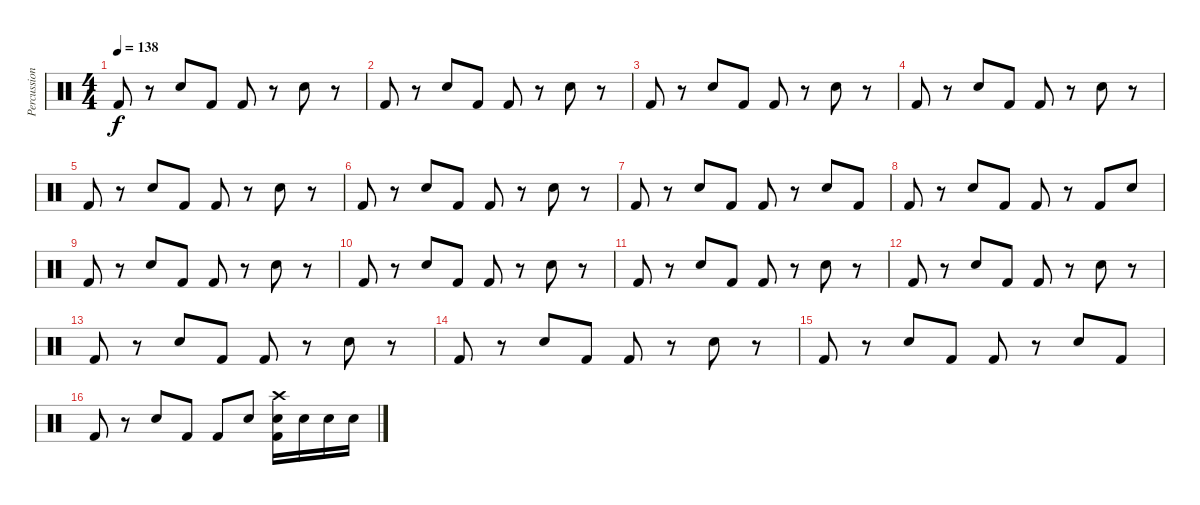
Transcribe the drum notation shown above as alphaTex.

\track ("Percussion" "Percussion") {instrument percussion}
\staff {score}
\articulation defaults
\ts (4 4)
\tempo 138
\clef neutral
\ks c "Kick (hit) 2".8{dy f}
r.8 "Snare (hit) 2".8 "Kick (hit) 2".8 "Kick (hit) 2".8 r.8 "Snare (hit) 2".8 r.8 |
"Kick (hit) 2".8 r.8 "Snare (hit) 2".8 "Kick (hit) 2".8 "Kick (hit) 2".8 r.8 "Snare (hit) 2".8 r.8 |
"Kick (hit) 2".8 r.8 "Snare (hit) 2".8 "Kick (hit) 2".8 "Kick (hit) 2".8 r.8 "Snare (hit) 2".8 r.8 |
"Kick (hit) 2".8 r.8 "Snare (hit) 2".8 "Kick (hit) 2".8 "Kick (hit) 2".8 r.8 "Snare (hit) 2".8 r.8 |
"Kick (hit) 2".8 r.8 "Snare (hit) 2".8 "Kick (hit) 2".8 "Kick (hit) 2".8 r.8 "Snare (hit) 2".8 r.8 |
"Kick (hit) 2".8 r.8 "Snare (hit) 2".8 "Kick (hit) 2".8 "Kick (hit) 2".8 r.8 "Snare (hit) 2".8 r.8 |
"Kick (hit) 2".8 r.8 "Snare (hit) 2".8 "Kick (hit) 2".8 "Kick (hit) 2".8 r.8 "Snare (hit) 2".8 "Kick (hit) 2".8 |
"Kick (hit) 2".8 r.8 "Snare (hit) 2".8 "Kick (hit) 2".8 "Kick (hit) 2".8 r.8 "Kick (hit) 2".8 "Snare (hit) 2".8 |
"Kick (hit) 2".8 r.8 "Snare (hit) 2".8 "Kick (hit) 2".8 "Kick (hit) 2".8 r.8 "Snare (hit) 2".8 r.8 |
"Kick (hit) 2".8 r.8 "Snare (hit) 2".8 "Kick (hit) 2".8 "Kick (hit) 2".8 r.8 "Snare (hit) 2".8 r.8 |
"Kick (hit) 2".8 r.8 "Snare (hit) 2".8 "Kick (hit) 2".8 "Kick (hit) 2".8 r.8 "Snare (hit) 2".8 r.8 |
"Kick (hit) 2".8 r.8 "Snare (hit) 2".8 "Kick (hit) 2".8 "Kick (hit) 2".8 r.8 "Snare (hit) 2".8 r.8 |
"Kick (hit) 2".8 r.8 "Snare (hit) 2".8 "Kick (hit) 2".8 "Kick (hit) 2".8 r.8 "Snare (hit) 2".8 r.8 |
"Kick (hit) 2".8 r.8 "Snare (hit) 2".8 "Kick (hit) 2".8 "Kick (hit) 2".8 r.8 "Snare (hit) 2".8 r.8 |
"Kick (hit) 2".8 r.8 "Snare (hit) 2".8 "Kick (hit) 2".8 "Kick (hit) 2".8 r.8 "Snare (hit) 2".8 "Kick (hit) 2".8 |
"Kick (hit) 2".8 r.8 "Snare (hit) 2".8 "Kick (hit) 2".8 "Kick (hit) 2".8 "Snare (hit) 2".8 ("Crash high (hit)" "Snare (hit) 2" "Kick (hit) 2").16 "Snare (hit) 2".16 "Snare (hit) 2".16 "Snare (hit) 2".16
